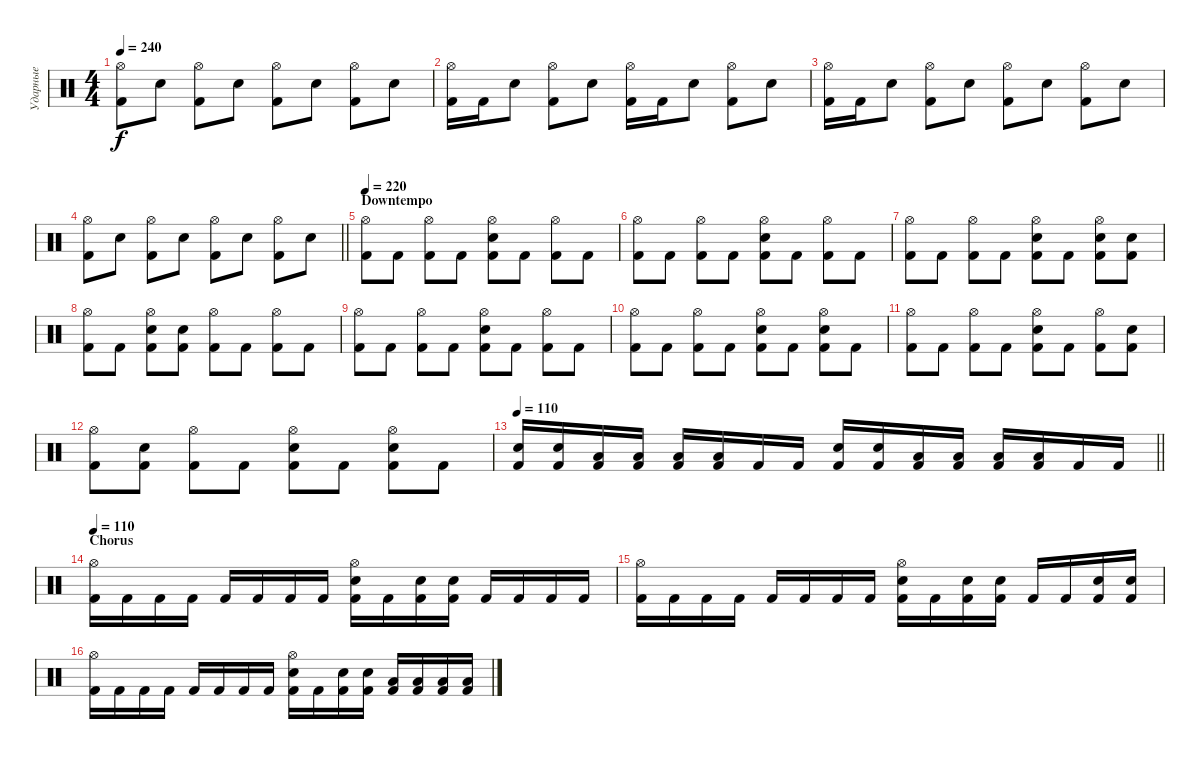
\track ("Ударные" "Ударные") {instrument percussion}
\staff {score}
\articulation defaults
\ts (4 4)
\tempo 240
\clef neutral
\ks c
("Hi-Hat (open)" "Kick (hit) 2").8{dy f} "Electric Snare (hit)".8 ("Hi-Hat (open)" "Kick (hit) 2").8 "Electric Snare (hit)".8 ("Hi-Hat (open)" "Kick (hit) 2").8 "Electric Snare (hit)".8 ("Hi-Hat (open)" "Kick (hit) 2").8 "Electric Snare (hit)".8 |
("Hi-Hat (open)" "Kick (hit) 2").16 "Kick (hit) 2".16 "Electric Snare (hit)".8 ("Hi-Hat (open)" "Kick (hit) 2").8 "Electric Snare (hit)".8 ("Hi-Hat (open)" "Kick (hit) 2").16 "Kick (hit) 2".16 "Electric Snare (hit)".8 ("Hi-Hat (open)" "Kick (hit) 2").8 "Electric Snare (hit)".8 |
("Hi-Hat (open)" "Kick (hit) 2").16 "Kick (hit) 2".16 "Electric Snare (hit)".8 ("Hi-Hat (open)" "Kick (hit) 2").8 "Electric Snare (hit)".8 ("Hi-Hat (open)" "Kick (hit) 2").8 "Electric Snare (hit)".8 ("Hi-Hat (open)" "Kick (hit) 2").8 "Electric Snare (hit)".8 |
\barLineRight lightlight
("Hi-Hat (open)" "Kick (hit) 2").8 "Electric Snare (hit)".8 ("Hi-Hat (open)" "Kick (hit) 2").8 "Electric Snare (hit)".8 ("Hi-Hat (open)" "Kick (hit) 2").8 "Electric Snare (hit)".8 ("Hi-Hat (open)" "Kick (hit) 2").8 "Electric Snare (hit)".8 |
\section ("" "Downtempo")
\tempo 220
("Hi-Hat (open)" "Kick (hit) 2").8 "Kick (hit) 2".8 ("Hi-Hat (open)" "Kick (hit) 2").8 "Kick (hit) 2".8 ("Hi-Hat (open)" "Electric Snare (hit)" "Kick (hit) 2").8 "Kick (hit) 2".8 ("Hi-Hat (open)" "Kick (hit) 2").8 "Kick (hit) 2".8 |
("Hi-Hat (open)" "Kick (hit) 2").8 "Kick (hit) 2".8 ("Hi-Hat (open)" "Kick (hit) 2").8 "Kick (hit) 2".8 ("Hi-Hat (open)" "Electric Snare (hit)" "Kick (hit) 2").8 "Kick (hit) 2".8 ("Hi-Hat (open)" "Kick (hit) 2").8 "Kick (hit) 2".8 |
("Hi-Hat (open)" "Kick (hit) 2").8 "Kick (hit) 2".8 ("Hi-Hat (open)" "Kick (hit) 2").8 "Kick (hit) 2".8 ("Hi-Hat (open)" "Electric Snare (hit)" "Kick (hit) 2").8 "Kick (hit) 2".8 ("Hi-Hat (open)" "Electric Snare (hit)" "Kick (hit) 2").8 ("Electric Snare (hit)" "Kick (hit) 2").8 |
("Hi-Hat (open)" "Kick (hit) 2").8 "Kick (hit) 2".8 ("Hi-Hat (open)" "Electric Snare (hit)" "Kick (hit) 2").8 ("Electric Snare (hit)" "Kick (hit) 2").8 ("Hi-Hat (open)" "Kick (hit) 2").8 "Kick (hit) 2".8 ("Hi-Hat (open)" "Kick (hit) 2").8 "Kick (hit) 2".8 |
("Hi-Hat (open)" "Kick (hit) 2").8 "Kick (hit) 2".8 ("Hi-Hat (open)" "Kick (hit) 2").8 "Kick (hit) 2".8 ("Hi-Hat (open)" "Electric Snare (hit)" "Kick (hit) 2").8 "Kick (hit) 2".8 ("Hi-Hat (open)" "Kick (hit) 2").8 "Kick (hit) 2".8 |
("Hi-Hat (open)" "Kick (hit) 2").8 "Kick (hit) 2".8 ("Hi-Hat (open)" "Kick (hit) 2").8 "Kick (hit) 2".8 ("Hi-Hat (open)" "Electric Snare (hit)" "Kick (hit) 2").8 "Kick (hit) 2".8 ("Hi-Hat (open)" "Electric Snare (hit)" "Kick (hit) 2").8 "Kick (hit) 2".8 |
("Hi-Hat (open)" "Kick (hit) 2").8 "Kick (hit) 2".8 ("Hi-Hat (open)" "Kick (hit) 2").8 "Kick (hit) 2".8 ("Hi-Hat (open)" "Electric Snare (hit)" "Kick (hit) 2").8 "Kick (hit) 2".8 ("Hi-Hat (open)" "Kick (hit) 2").8 ("Electric Snare (hit)" "Kick (hit) 2").8 |
("Hi-Hat (open)" "Kick (hit) 2").8 ("Electric Snare (hit)" "Kick (hit) 2").8 ("Hi-Hat (open)" "Kick (hit) 2").8 "Kick (hit) 2".8 ("Hi-Hat (open)" "Electric Snare (hit)" "Kick (hit) 2").8 "Kick (hit) 2".8 ("Hi-Hat (open)" "Electric Snare (hit)" "Kick (hit) 2").8 "Kick (hit) 2".8 |
\tempo 110
\barLineRight lightlight
("Electric Snare (hit)" "Kick (hit) 2").16 ("Electric Snare (hit)" "Kick (hit) 2").16 ("Low Tom (hit)" "Kick (hit) 2").16 ("Low Tom (hit)" "Kick (hit) 2").16 ("Low Floor Tom (hit)" "Kick (hit) 2").16 ("Low Floor Tom (hit)" "Kick (hit) 2").16 "Kick (hit) 2".16 "Kick (hit) 2".16 ("Electric Snare (hit)" "Kick (hit) 2").16 ("Electric Snare (hit)" "Kick (hit) 2").16 ("Low Tom (hit)" "Kick (hit) 2").16 ("Low Tom (hit)" "Kick (hit) 2").16 ("Low Floor Tom (hit)" "Kick (hit) 2").16 ("Low Floor Tom (hit)" "Kick (hit) 2").16 "Kick (hit) 2".16 "Kick (hit) 2".16 |
\section ("" "Chorus")
\tempo 110
("Hi-Hat (open)" "Kick (hit) 2").16 "Kick (hit) 2".16 "Kick (hit) 2".16 "Kick (hit) 2".16 "Kick (hit) 2".16 "Kick (hit) 2".16 "Kick (hit) 2".16 "Kick (hit) 2".16 ("Hi-Hat (open)" "Electric Snare (hit)" "Kick (hit) 2").16 "Kick (hit) 2".16 ("Electric Snare (hit)" "Kick (hit) 2").16 ("Electric Snare (hit)" "Kick (hit) 2").16 "Kick (hit) 2".16 "Kick (hit) 2".16 "Kick (hit) 2".16 "Kick (hit) 2".16 |
("Hi-Hat (open)" "Kick (hit) 2").16 "Kick (hit) 2".16 "Kick (hit) 2".16 "Kick (hit) 2".16 "Kick (hit) 2".16 "Kick (hit) 2".16 "Kick (hit) 2".16 "Kick (hit) 2".16 ("Hi-Hat (open)" "Electric Snare (hit)" "Kick (hit) 2").16 "Kick (hit) 2".16 ("Electric Snare (hit)" "Kick (hit) 2").16 ("Electric Snare (hit)" "Kick (hit) 2").16 "Kick (hit) 2".16 "Kick (hit) 2".16 ("Electric Snare (hit)" "Kick (hit) 2").16 ("Electric Snare (hit)" "Kick (hit) 2").16 |
("Hi-Hat (open)" "Kick (hit) 2").16 "Kick (hit) 2".16 "Kick (hit) 2".16 "Kick (hit) 2".16 "Kick (hit) 2".16 "Kick (hit) 2".16 "Kick (hit) 2".16 "Kick (hit) 2".16 ("Hi-Hat (open)" "Electric Snare (hit)" "Kick (hit) 2").16 "Kick (hit) 2".16 ("Electric Snare (hit)" "Kick (hit) 2").16 ("Electric Snare (hit)" "Kick (hit) 2").16 ("Low Tom (hit)" "Kick (hit) 2").16 ("Low Tom (hit)" "Kick (hit) 2").16 ("Low Floor Tom (hit)" "Kick (hit) 2").16 ("Low Floor Tom (hit)" "Kick (hit) 2").16
